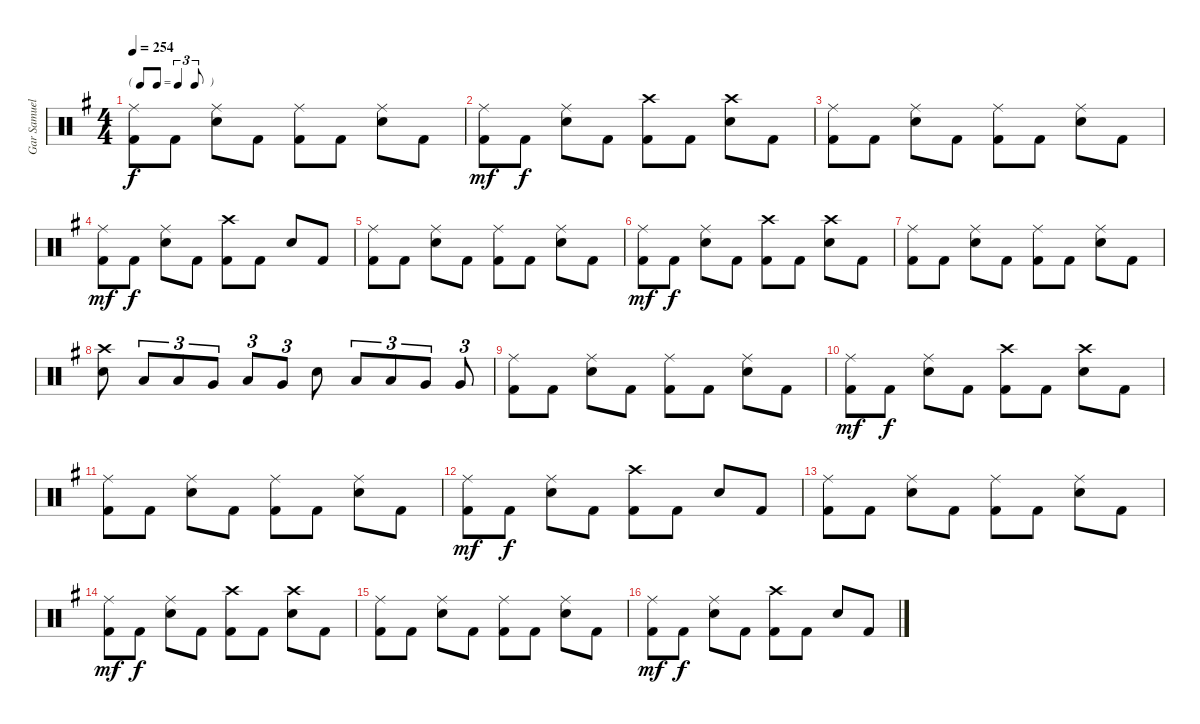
\track ("Gar Samuelson" "Gar Samuel") {instrument percussion}
\staff {score}
\articulation defaults
\ts (4 4)
\tf triplet8th
\tempo 254
\clef neutral
\ks g
("Ride (middle)" "Kick (hit) 2").8{dy f} "Kick (hit) 2".8 ("Ride (middle)" "Snare (hit) 2").8 "Kick (hit) 2".8 ("Ride (middle)" "Kick (hit) 2").8 "Kick (hit) 2".8 ("Ride (middle)" "Snare (hit) 2").8 "Kick (hit) 2".8 |
("Ride (middle)" "Kick (hit) 2").8{dy mf} "Kick (hit) 2".8{dy f} ("Ride (middle)" "Snare (hit) 2").8 "Kick (hit) 2".8 ("Crash high (hit)" "Kick (hit) 2").8 "Kick (hit) 2".8 ("Crash high (hit)" "Snare (hit) 2").8 "Kick (hit) 2".8 |
("Ride (middle)" "Kick (hit) 2").8 "Kick (hit) 2".8 ("Ride (middle)" "Snare (hit) 2").8 "Kick (hit) 2".8 ("Ride (middle)" "Kick (hit) 2").8 "Kick (hit) 2".8 ("Ride (middle)" "Snare (hit) 2").8 "Kick (hit) 2".8 |
("Ride (middle)" "Kick (hit) 2").8{dy mf} "Kick (hit) 2".8{dy f} ("Ride (middle)" "Snare (hit) 2").8 "Kick (hit) 2".8 ("Crash high (hit)" "Kick (hit) 2").8 "Kick (hit) 2".8 "Snare (hit) 2".8 "Kick (hit) 2".8 |
("Ride (middle)" "Kick (hit) 2").8 "Kick (hit) 2".8 ("Ride (middle)" "Snare (hit) 2").8 "Kick (hit) 2".8 ("Ride (middle)" "Kick (hit) 2").8 "Kick (hit) 2".8 ("Ride (middle)" "Snare (hit) 2").8 "Kick (hit) 2".8 |
("Ride (middle)" "Kick (hit) 2").8{dy mf} "Kick (hit) 2".8{dy f} ("Ride (middle)" "Snare (hit) 2").8 "Kick (hit) 2".8 ("Crash high (hit)" "Kick (hit) 2").8 "Kick (hit) 2".8 ("Crash high (hit)" "Snare (hit) 2").8 "Kick (hit) 2".8 |
("Ride (middle)" "Kick (hit) 2").8 "Kick (hit) 2".8 ("Ride (middle)" "Snare (hit) 2").8 "Kick (hit) 2".8 ("Ride (middle)" "Kick (hit) 2").8 "Kick (hit) 2".8 ("Ride (middle)" "Snare (hit) 2").8 "Kick (hit) 2".8 |
("Crash high (hit)" "Snare (hit) 2").8 "Low Tom (hit)".8{tu (3 2)} "Low Tom (hit)".8{tu (3 2)} "Very Low Tom (hit)".8{tu (3 2)} "Low Tom (hit)".8{tu (3 2)} "Very Low Tom (hit)".8{tu (3 2)} "Snare (hit) 2".8 "Low Tom (hit)".8{tu (3 2)} "Low Tom (hit)".8{tu (3 2)} "Very Low Tom (hit)".8{tu (3 2)} "Very Low Tom (hit)".8{tu (3 2)} |
("Ride (middle)" "Kick (hit) 2").8 "Kick (hit) 2".8 ("Ride (middle)" "Snare (hit) 2").8 "Kick (hit) 2".8 ("Ride (middle)" "Kick (hit) 2").8 "Kick (hit) 2".8 ("Ride (middle)" "Snare (hit) 2").8 "Kick (hit) 2".8 |
("Ride (middle)" "Kick (hit) 2").8{dy mf} "Kick (hit) 2".8{dy f} ("Ride (middle)" "Snare (hit) 2").8 "Kick (hit) 2".8 ("Crash high (hit)" "Kick (hit) 2").8 "Kick (hit) 2".8 ("Crash high (hit)" "Snare (hit) 2").8 "Kick (hit) 2".8 |
("Ride (middle)" "Kick (hit) 2").8 "Kick (hit) 2".8 ("Ride (middle)" "Snare (hit) 2").8 "Kick (hit) 2".8 ("Ride (middle)" "Kick (hit) 2").8 "Kick (hit) 2".8 ("Ride (middle)" "Snare (hit) 2").8 "Kick (hit) 2".8 |
("Ride (middle)" "Kick (hit) 2").8{dy mf} "Kick (hit) 2".8{dy f} ("Ride (middle)" "Snare (hit) 2").8 "Kick (hit) 2".8 ("Crash high (hit)" "Kick (hit) 2").8 "Kick (hit) 2".8 "Snare (hit) 2".8 "Kick (hit) 2".8 |
("Ride (middle)" "Kick (hit) 2").8 "Kick (hit) 2".8 ("Ride (middle)" "Snare (hit) 2").8 "Kick (hit) 2".8 ("Ride (middle)" "Kick (hit) 2").8 "Kick (hit) 2".8 ("Ride (middle)" "Snare (hit) 2").8 "Kick (hit) 2".8 |
("Ride (middle)" "Kick (hit) 2").8{dy mf} "Kick (hit) 2".8{dy f} ("Ride (middle)" "Snare (hit) 2").8 "Kick (hit) 2".8 ("Crash high (hit)" "Kick (hit) 2").8 "Kick (hit) 2".8 ("Crash high (hit)" "Snare (hit) 2").8 "Kick (hit) 2".8 |
("Ride (middle)" "Kick (hit) 2").8 "Kick (hit) 2".8 ("Ride (middle)" "Snare (hit) 2").8 "Kick (hit) 2".8 ("Ride (middle)" "Kick (hit) 2").8 "Kick (hit) 2".8 ("Ride (middle)" "Snare (hit) 2").8 "Kick (hit) 2".8 |
("Ride (middle)" "Kick (hit) 2").8{dy mf} "Kick (hit) 2".8{dy f} ("Ride (middle)" "Snare (hit) 2").8 "Kick (hit) 2".8 ("Crash high (hit)" "Kick (hit) 2").8 "Kick (hit) 2".8 "Snare (hit) 2".8 "Kick (hit) 2".8
